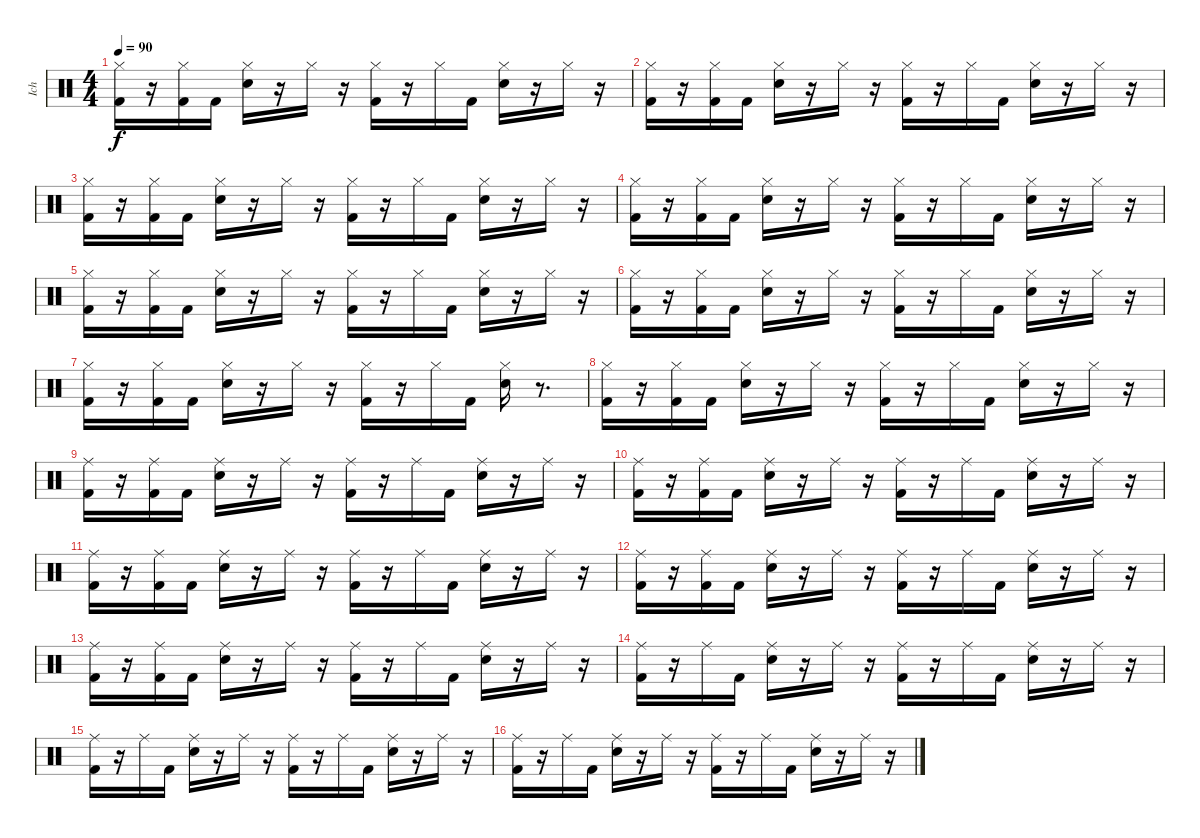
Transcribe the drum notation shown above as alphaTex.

\track ("Ich" "Ich") {instrument percussion}
\staff {score}
\articulation defaults
\ts (4 4)
\tempo 90
\clef neutral
\ks c
("Hi-Hat (closed)" "Kick (hit) 2").16{dy f} r.16 ("Hi-Hat (closed)" "Kick (hit) 2").16 "Kick (hit) 2".16 ("Hi-Hat (closed)" "Snare (hit) 2").16 r.16 "Hi-Hat (closed)".16 r.16 ("Hi-Hat (closed)" "Kick (hit) 2").16 r.16 "Hi-Hat (closed)".16 "Kick (hit) 2".16 ("Hi-Hat (closed)" "Snare (hit) 2").16 r.16 "Hi-Hat (closed)".16 r.16 |
("Hi-Hat (closed)" "Kick (hit) 2").16 r.16 ("Hi-Hat (closed)" "Kick (hit) 2").16 "Kick (hit) 2".16 ("Hi-Hat (closed)" "Snare (hit) 2").16 r.16 "Hi-Hat (closed)".16 r.16 ("Hi-Hat (closed)" "Kick (hit) 2").16 r.16 "Hi-Hat (closed)".16 "Kick (hit) 2".16 ("Hi-Hat (closed)" "Snare (hit) 2").16 r.16 "Hi-Hat (closed)".16 r.16 |
("Hi-Hat (closed)" "Kick (hit) 2").16 r.16 ("Hi-Hat (closed)" "Kick (hit) 2").16 "Kick (hit) 2".16 ("Hi-Hat (closed)" "Snare (hit) 2").16 r.16 "Hi-Hat (closed)".16 r.16 ("Hi-Hat (closed)" "Kick (hit) 2").16 r.16 "Hi-Hat (closed)".16 "Kick (hit) 2".16 ("Hi-Hat (closed)" "Snare (hit) 2").16 r.16 "Hi-Hat (closed)".16 r.16 |
("Hi-Hat (closed)" "Kick (hit) 2").16 r.16 ("Hi-Hat (closed)" "Kick (hit) 2").16 "Kick (hit) 2".16 ("Hi-Hat (closed)" "Snare (hit) 2").16 r.16 "Hi-Hat (closed)".16 r.16 ("Hi-Hat (closed)" "Kick (hit) 2").16 r.16 "Hi-Hat (closed)".16 "Kick (hit) 2".16 ("Hi-Hat (closed)" "Snare (hit) 2").16 r.16 "Hi-Hat (closed)".16 r.16 |
("Hi-Hat (closed)" "Kick (hit) 2").16 r.16 ("Hi-Hat (closed)" "Kick (hit) 2").16 "Kick (hit) 2".16 ("Hi-Hat (closed)" "Snare (hit) 2").16 r.16 "Hi-Hat (closed)".16 r.16 ("Hi-Hat (closed)" "Kick (hit) 2").16 r.16 "Hi-Hat (closed)".16 "Kick (hit) 2".16 ("Hi-Hat (closed)" "Snare (hit) 2").16 r.16 "Hi-Hat (closed)".16 r.16 |
("Hi-Hat (closed)" "Kick (hit) 2").16 r.16 ("Hi-Hat (closed)" "Kick (hit) 2").16 "Kick (hit) 2".16 ("Hi-Hat (closed)" "Snare (hit) 2").16 r.16 "Hi-Hat (closed)".16 r.16 ("Hi-Hat (closed)" "Kick (hit) 2").16 r.16 "Hi-Hat (closed)".16 "Kick (hit) 2".16 ("Hi-Hat (closed)" "Snare (hit) 2").16 r.16 "Hi-Hat (closed)".16 r.16 |
("Hi-Hat (closed)" "Kick (hit) 2").16 r.16 ("Hi-Hat (closed)" "Kick (hit) 2").16 "Kick (hit) 2".16 ("Hi-Hat (closed)" "Snare (hit) 2").16 r.16 "Hi-Hat (closed)".16 r.16 ("Hi-Hat (closed)" "Kick (hit) 2").16 r.16 "Hi-Hat (closed)".16 "Kick (hit) 2".16 ("Hi-Hat (closed)" "Snare (hit) 2").16 r.8{d} |
("Hi-Hat (closed)" "Kick (hit) 2").16 r.16 ("Hi-Hat (closed)" "Kick (hit) 2").16 "Kick (hit) 2".16 ("Hi-Hat (closed)" "Snare (hit) 2").16 r.16 "Hi-Hat (closed)".16 r.16 ("Hi-Hat (closed)" "Kick (hit) 2").16 r.16 "Hi-Hat (closed)".16 "Kick (hit) 2".16 ("Hi-Hat (closed)" "Snare (hit) 2").16 r.16 "Hi-Hat (closed)".16 r.16 |
("Ride (middle)" "Kick (hit) 2").16 r.16 ("Ride (middle)" "Kick (hit) 2").16 "Kick (hit) 2".16 ("Ride (middle)" "Snare (hit) 2").16 r.16 "Ride (middle)".16 r.16 ("Ride (middle)" "Kick (hit) 2").16 r.16 "Ride (middle)".16 "Kick (hit) 2".16 ("Ride (middle)" "Snare (hit) 2").16 r.16 "Ride (middle)".16 r.16 |
("Ride (middle)" "Kick (hit) 2").16 r.16 ("Ride (middle)" "Kick (hit) 2").16 "Kick (hit) 2".16 ("Ride (middle)" "Snare (hit) 2").16 r.16 "Ride (middle)".16 r.16 ("Ride (middle)" "Kick (hit) 2").16 r.16 "Ride (middle)".16 "Kick (hit) 2".16 ("Ride (middle)" "Snare (hit) 2").16 r.16 "Ride (middle)".16 r.16 |
("Ride (middle)" "Kick (hit) 2").16 r.16 ("Ride (middle)" "Kick (hit) 2").16 "Kick (hit) 2".16 ("Ride (middle)" "Snare (hit) 2").16 r.16 "Ride (middle)".16 r.16 ("Ride (middle)" "Kick (hit) 2").16 r.16 "Ride (middle)".16 "Kick (hit) 2".16 ("Ride (middle)" "Snare (hit) 2").16 r.16 "Ride (middle)".16 r.16 |
("Ride (middle)" "Kick (hit) 2").16 r.16 ("Ride (middle)" "Kick (hit) 2").16 "Kick (hit) 2".16 ("Ride (middle)" "Snare (hit) 2").16 r.16 "Ride (middle)".16 r.16 ("Ride (middle)" "Kick (hit) 2").16 r.16 "Ride (middle)".16 "Kick (hit) 2".16 ("Ride (middle)" "Snare (hit) 2").16 r.16 "Ride (middle)".16 r.16 |
("Ride (middle)" "Kick (hit) 2").16 r.16 ("Ride (middle)" "Kick (hit) 2").16 "Kick (hit) 2".16 ("Ride (middle)" "Snare (hit) 2").16 r.16 "Ride (middle)".16 r.16 ("Ride (middle)" "Kick (hit) 2").16 r.16 "Ride (middle)".16 "Kick (hit) 2".16 ("Ride (middle)" "Snare (hit) 2").16 r.16 "Ride (middle)".16 r.16 |
("Ride (middle)" "Kick (hit) 2").16 r.16 "Ride (middle)".16 "Kick (hit) 2".16 ("Ride (middle)" "Snare (hit) 2").16 r.16 "Ride (middle)".16 r.16 ("Ride (middle)" "Kick (hit) 2").16 r.16 "Ride (middle)".16 "Kick (hit) 2".16 ("Ride (middle)" "Snare (hit) 2").16 r.16 "Ride (middle)".16 r.16 |
("Ride (middle)" "Kick (hit) 2").16 r.16 "Ride (middle)".16 "Kick (hit) 2".16 ("Ride (middle)" "Snare (hit) 2").16 r.16 "Ride (middle)".16 r.16 ("Ride (middle)" "Kick (hit) 2").16 r.16 "Ride (middle)".16 "Kick (hit) 2".16 ("Ride (middle)" "Snare (hit) 2").16 r.16 "Ride (middle)".16 r.16 |
("Ride (middle)" "Kick (hit) 2").16 r.16 "Ride (middle)".16 "Kick (hit) 2".16 ("Ride (middle)" "Snare (hit) 2").16 r.16 "Ride (middle)".16 r.16 ("Ride (middle)" "Kick (hit) 2").16 r.16 "Ride (middle)".16 "Kick (hit) 2".16 ("Ride (middle)" "Snare (hit) 2").16 r.16 "Ride (middle)".16 r.16
